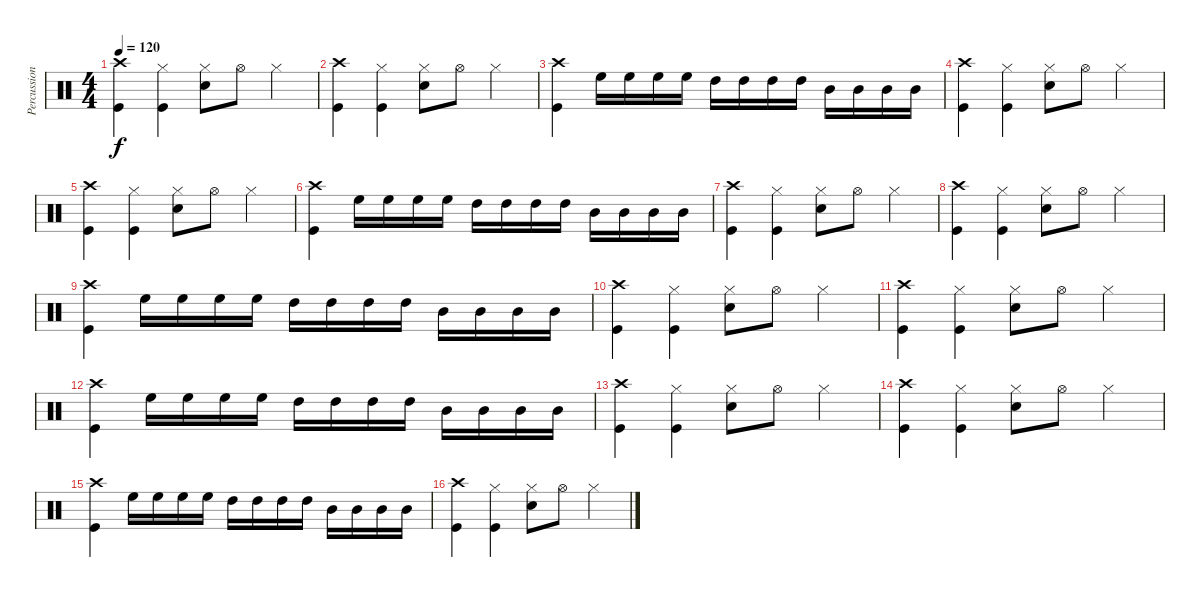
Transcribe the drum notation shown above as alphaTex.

\track ("Percussion" "Percussion") {instrument percussion}
\staff {score}
\articulation defaults
\ts (4 4)
\tempo 120
\clef neutral
\ks c
("Crash high (hit)" "Kick (hit)").4{dy f} ("Hi-Hat (closed)" "Kick (hit)").4 ("Hi-Hat (closed)" "Snare (hit) 2").8 "Hi-Hat (open)".8 "Hi-Hat (closed)".4 |
("Crash high (hit)" "Kick (hit)").4 ("Hi-Hat (closed)" "Kick (hit)").4 ("Hi-Hat (closed)" "Snare (hit) 2").8 "Hi-Hat (open)".8 "Hi-Hat (closed)".4 |
("Crash high (hit)" "Kick (hit)").4 "High Floor Tom (hit)".16 "High Floor Tom (hit)".16 "High Floor Tom (hit)".16 "High Floor Tom (hit)".16 "High Tom (hit)".16 "High Tom (hit)".16 "High Tom (hit)".16 "High Tom (hit)".16 "Mid Tom (hit)".16 "Mid Tom (hit)".16 "Mid Tom (hit)".16 "Mid Tom (hit)".16 |
("Crash high (hit)" "Kick (hit)").4 ("Hi-Hat (closed)" "Kick (hit)").4 ("Hi-Hat (closed)" "Snare (hit) 2").8 "Hi-Hat (open)".8 "Hi-Hat (closed)".4 |
("Crash high (hit)" "Kick (hit)").4 ("Hi-Hat (closed)" "Kick (hit)").4 ("Hi-Hat (closed)" "Snare (hit) 2").8 "Hi-Hat (open)".8 "Hi-Hat (closed)".4 |
("Crash high (hit)" "Kick (hit)").4 "High Floor Tom (hit)".16 "High Floor Tom (hit)".16 "High Floor Tom (hit)".16 "High Floor Tom (hit)".16 "High Tom (hit)".16 "High Tom (hit)".16 "High Tom (hit)".16 "High Tom (hit)".16 "Mid Tom (hit)".16 "Mid Tom (hit)".16 "Mid Tom (hit)".16 "Mid Tom (hit)".16 |
("Crash high (hit)" "Kick (hit)").4 ("Hi-Hat (closed)" "Kick (hit)").4 ("Hi-Hat (closed)" "Snare (hit) 2").8 "Hi-Hat (open)".8 "Hi-Hat (closed)".4 |
("Crash high (hit)" "Kick (hit)").4 ("Hi-Hat (closed)" "Kick (hit)").4 ("Hi-Hat (closed)" "Snare (hit) 2").8 "Hi-Hat (open)".8 "Hi-Hat (closed)".4 |
("Crash high (hit)" "Kick (hit)").4 "High Floor Tom (hit)".16 "High Floor Tom (hit)".16 "High Floor Tom (hit)".16 "High Floor Tom (hit)".16 "High Tom (hit)".16 "High Tom (hit)".16 "High Tom (hit)".16 "High Tom (hit)".16 "Mid Tom (hit)".16 "Mid Tom (hit)".16 "Mid Tom (hit)".16 "Mid Tom (hit)".16 |
("Crash high (hit)" "Kick (hit)").4 ("Hi-Hat (closed)" "Kick (hit)").4 ("Hi-Hat (closed)" "Snare (hit) 2").8 "Hi-Hat (open)".8 "Hi-Hat (closed)".4 |
("Crash high (hit)" "Kick (hit)").4 ("Hi-Hat (closed)" "Kick (hit)").4 ("Hi-Hat (closed)" "Snare (hit) 2").8 "Hi-Hat (open)".8 "Hi-Hat (closed)".4 |
("Crash high (hit)" "Kick (hit)").4 "High Floor Tom (hit)".16 "High Floor Tom (hit)".16 "High Floor Tom (hit)".16 "High Floor Tom (hit)".16 "High Tom (hit)".16 "High Tom (hit)".16 "High Tom (hit)".16 "High Tom (hit)".16 "Mid Tom (hit)".16 "Mid Tom (hit)".16 "Mid Tom (hit)".16 "Mid Tom (hit)".16 |
("Crash high (hit)" "Kick (hit)").4 ("Hi-Hat (closed)" "Kick (hit)").4 ("Hi-Hat (closed)" "Snare (hit) 2").8 "Hi-Hat (open)".8 "Hi-Hat (closed)".4 |
("Crash high (hit)" "Kick (hit)").4 ("Hi-Hat (closed)" "Kick (hit)").4 ("Hi-Hat (closed)" "Snare (hit) 2").8 "Hi-Hat (open)".8 "Hi-Hat (closed)".4 |
("Crash high (hit)" "Kick (hit)").4 "High Floor Tom (hit)".16 "High Floor Tom (hit)".16 "High Floor Tom (hit)".16 "High Floor Tom (hit)".16 "High Tom (hit)".16 "High Tom (hit)".16 "High Tom (hit)".16 "High Tom (hit)".16 "Mid Tom (hit)".16 "Mid Tom (hit)".16 "Mid Tom (hit)".16 "Mid Tom (hit)".16 |
("Crash high (hit)" "Kick (hit)").4 ("Hi-Hat (closed)" "Kick (hit)").4 ("Hi-Hat (closed)" "Snare (hit) 2").8 "Hi-Hat (open)".8 "Hi-Hat (closed)".4
